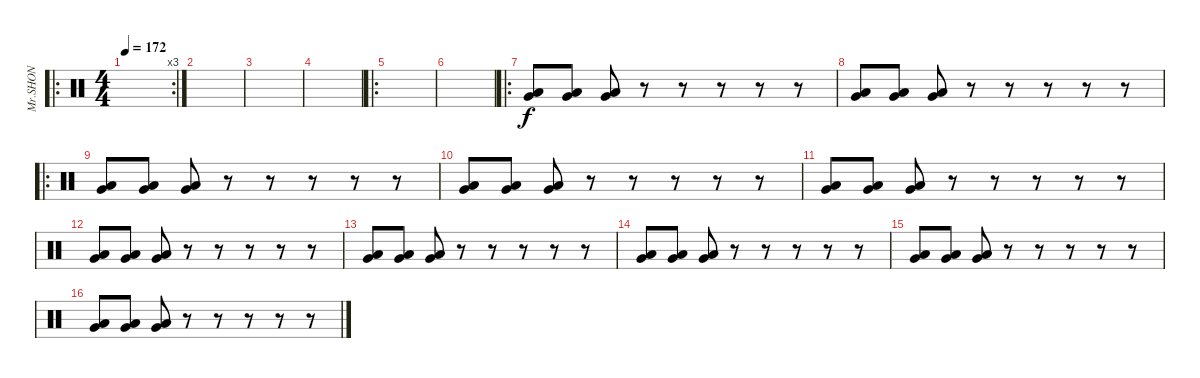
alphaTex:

\track ("Mr.SHON" "Mr.SHON") {instrument percussion}
\staff {score}
\articulation defaults
\ro
\rc 3
\ts (4 4)
\tempo 172
\clef neutral
\ks c
|
|
|
|
\ro
|
|
\ro
("Very Low Tom (hit)" "Low Floor Tom (hit)").8 ("Very Low Tom (hit)" "Low Floor Tom (hit)").8 ("Very Low Tom (hit)" "Low Floor Tom (hit)").8 r.8 r.8 r.8 r.8 r.8 |
("Very Low Tom (hit)" "Low Floor Tom (hit)").8 ("Very Low Tom (hit)" "Low Floor Tom (hit)").8 ("Very Low Tom (hit)" "Low Floor Tom (hit)").8 r.8 r.8 r.8 r.8 r.8 |
\ro
("Very Low Tom (hit)" "Low Floor Tom (hit)").8 ("Very Low Tom (hit)" "Low Floor Tom (hit)").8 ("Very Low Tom (hit)" "Low Floor Tom (hit)").8 r.8 r.8 r.8 r.8 r.8 |
("Very Low Tom (hit)" "Low Floor Tom (hit)").8 ("Very Low Tom (hit)" "Low Floor Tom (hit)").8 ("Very Low Tom (hit)" "Low Floor Tom (hit)").8 r.8 r.8 r.8 r.8 r.8 |
("Very Low Tom (hit)" "Low Floor Tom (hit)").8 ("Very Low Tom (hit)" "Low Floor Tom (hit)").8 ("Very Low Tom (hit)" "Low Floor Tom (hit)").8 r.8 r.8 r.8 r.8 r.8 |
("Very Low Tom (hit)" "Low Floor Tom (hit)").8 ("Very Low Tom (hit)" "Low Floor Tom (hit)").8 ("Very Low Tom (hit)" "Low Floor Tom (hit)").8 r.8 r.8 r.8 r.8 r.8 |
("Very Low Tom (hit)" "Low Floor Tom (hit)").8 ("Very Low Tom (hit)" "Low Floor Tom (hit)").8 ("Very Low Tom (hit)" "Low Floor Tom (hit)").8 r.8 r.8 r.8 r.8 r.8 |
("Very Low Tom (hit)" "Low Floor Tom (hit)").8 ("Very Low Tom (hit)" "Low Floor Tom (hit)").8 ("Very Low Tom (hit)" "Low Floor Tom (hit)").8 r.8 r.8 r.8 r.8 r.8 |
("Very Low Tom (hit)" "Low Floor Tom (hit)").8 ("Very Low Tom (hit)" "Low Floor Tom (hit)").8 ("Very Low Tom (hit)" "Low Floor Tom (hit)").8 r.8 r.8 r.8 r.8 r.8 |
("Very Low Tom (hit)" "Low Floor Tom (hit)").8 ("Very Low Tom (hit)" "Low Floor Tom (hit)").8 ("Very Low Tom (hit)" "Low Floor Tom (hit)").8 r.8 r.8 r.8 r.8 r.8
